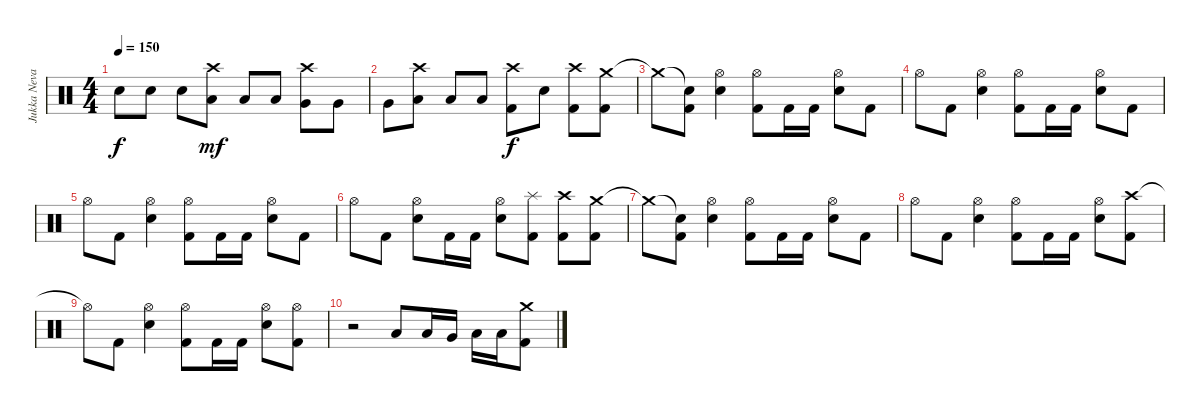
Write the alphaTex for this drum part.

\track ("Jukka Nevalainen" "Jukka Neva") {instrument percussion}
\staff {score}
\articulation defaults
\ts (4 4)
\tempo 150
\clef neutral
\ks c "Snare (hit)"{t}.8{dy f} "Electric Snare (hit)".8 "Electric Snare (hit)".8
("Crash high (hit)" "Low Tom (hit)").8{dy mf} "Low Tom (hit)".8 "Low Tom (hit)".8 ("Crash high (hit)" "Very Low Tom (hit)").8 "Very Low Tom (hit)".8 |
"Very Low Tom (hit)".8 ("Crash high (hit)" "Low Floor Tom (hit)").8 "Low Floor Tom (hit)".8 "Low Floor Tom (hit)".8 ("Crash high (hit)" "Kick (hit) 2").8{dy f} "Electric Snare (hit)".8 ("Crash high (hit)" "Kick (hit) 2").8 ("Crash medium (hit)" "Kick (hit) 2").8 |
"Crash medium (hit)"{t}.8 ("Snare (hit)"{t} "Kick (hit) 2").8 ("Hi-Hat (open)" "Electric Snare (hit)").4 ("Hi-Hat (open)" "Kick (hit) 2").8 "Kick (hit) 2".16 "Kick (hit) 2".16 ("Hi-Hat (open)" "Electric Snare (hit)").8 "Kick (hit) 2".8 |
"Hi-Hat (open)".8 "Kick (hit) 2".8 ("Hi-Hat (open)" "Electric Snare (hit)").4 ("Hi-Hat (open)" "Kick (hit) 2").8 "Kick (hit) 2".16 "Kick (hit) 2".16 ("Hi-Hat (open)" "Electric Snare (hit)").8 "Kick (hit) 2".8 |
"Hi-Hat (open)".8 "Kick (hit) 2".8 ("Hi-Hat (open)" "Electric Snare (hit)").4 ("Hi-Hat (open)" "Kick (hit) 2").8 "Kick (hit) 2".16 "Kick (hit) 2".16 ("Hi-Hat (open)" "Electric Snare (hit)").8 "Kick (hit) 2".8 |
"Hi-Hat (open)".8 "Kick (hit) 2".8 ("Hi-Hat (open)" "Electric Snare (hit)").8 "Kick (hit) 2".16 "Kick (hit) 2".16 ("Hi-Hat (open)" "Electric Snare (hit)").8 ("Splash (hit)" "Kick (hit) 2").8 ("Crash high (hit)" "Kick (hit) 2").8 ("Crash medium (hit)" "Kick (hit) 2").8 |
"Crash medium (hit)"{t}.8 ("Snare (hit)"{t} "Kick (hit) 2").8 ("Hi-Hat (open)" "Electric Snare (hit)").4 ("Hi-Hat (open)" "Kick (hit) 2").8 "Kick (hit) 2".16 "Kick (hit) 2".16 ("Hi-Hat (open)" "Electric Snare (hit)").8 "Kick (hit) 2".8 |
"Hi-Hat (open)".8 "Kick (hit) 2".8 ("Hi-Hat (open)" "Electric Snare (hit)").4 ("Hi-Hat (open)" "Kick (hit) 2").8 "Kick (hit) 2".16 "Kick (hit) 2".16 ("Hi-Hat (open)" "Electric Snare (hit)").8 ("Crash high (hit)" "Kick (hit) 2").8 |
"Hi-Hat (open)"{t}.8 "Kick (hit) 2".8 ("Hi-Hat (open)" "Electric Snare (hit)").4 ("Hi-Hat (open)" "Kick (hit) 2").8 "Kick (hit) 2".16 "Kick (hit) 2".16 ("Hi-Hat (open)" "Electric Snare (hit)").8 ("Hi-Hat (open)" "Kick (hit) 2").8 |
r.2 "Low Tom (hit)".8 "Low Tom (hit)".16 "Very Low Tom (hit)".16 "Low Floor Tom (hit)".16 "Low Floor Tom (hit)".16 ("Crash medium (hit)" "Kick (hit) 2").8
